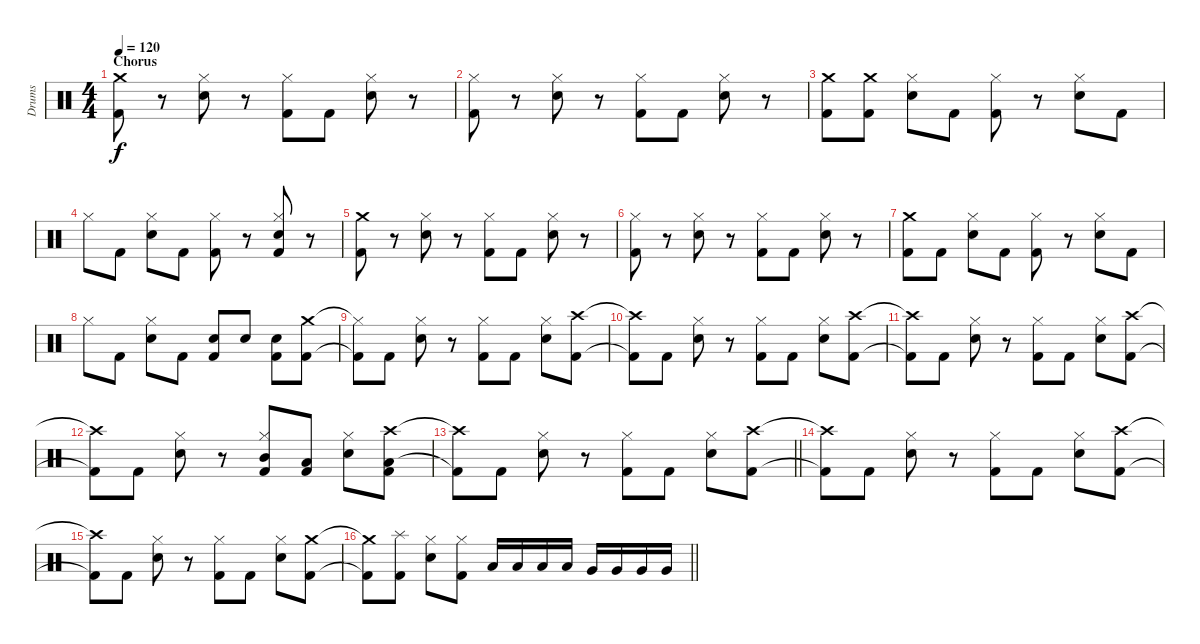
\track ("Drums" "Drums") {instrument percussion}
\staff {score}
\articulation defaults
\ts (4 4)
\section ("" "Chorus")
\tempo 120
\clef neutral
\ks c
("Crash medium (hit)" "Kick (hit) 2").8{dy f} r.8 ("Hi-Hat (closed)" "Electric Snare (hit)").8 r.8 ("Hi-Hat (closed)" "Kick (hit) 2").8 "Kick (hit) 2".8 ("Hi-Hat (closed)" "Electric Snare (hit)").8 r.8 |
("Hi-Hat (closed)" "Kick (hit) 2").8 r.8 ("Hi-Hat (closed)" "Electric Snare (hit)").8 r.8 ("Hi-Hat (closed)" "Kick (hit) 2").8 "Kick (hit) 2".8 ("Hi-Hat (closed)" "Electric Snare (hit)").8 r.8 |
("Crash medium (hit)" "Kick (hit) 2").8 ("Crash medium (hit)" "Kick (hit) 2").8 ("Hi-Hat (closed)" "Electric Snare (hit)").8 "Kick (hit) 2".8 ("Hi-Hat (closed)" "Kick (hit) 2").8 r.8 ("Hi-Hat (closed)" "Electric Snare (hit)").8 "Kick (hit) 2".8 |
"Hi-Hat (closed)".8 "Kick (hit) 2".8 ("Hi-Hat (closed)" "Electric Snare (hit)").8 "Kick (hit) 2".8 ("Hi-Hat (closed)" "Kick (hit) 2").8 r.8 ("Hi-Hat (closed)" "Electric Snare (hit)" "Kick (hit) 2").8 r.8 |
("Crash medium (hit)" "Kick (hit) 2").8 r.8 ("Hi-Hat (closed)" "Electric Snare (hit)").8 r.8 ("Hi-Hat (closed)" "Kick (hit) 2").8 "Kick (hit) 2".8 ("Hi-Hat (closed)" "Electric Snare (hit)").8 r.8 |
("Hi-Hat (closed)" "Kick (hit) 2").8 r.8 ("Hi-Hat (closed)" "Electric Snare (hit)").8 r.8 ("Hi-Hat (closed)" "Kick (hit) 2").8 "Kick (hit) 2".8 ("Hi-Hat (closed)" "Electric Snare (hit)").8 r.8 |
("Crash medium (hit)" "Kick (hit) 2").8 "Kick (hit) 2".8 ("Hi-Hat (closed)" "Electric Snare (hit)").8 "Kick (hit) 2".8 ("Hi-Hat (closed)" "Kick (hit) 2").8 r.8 ("Hi-Hat (closed)" "Electric Snare (hit)").8 "Kick (hit) 2".8 |
"Hi-Hat (closed)".8 "Kick (hit) 2".8 ("Hi-Hat (closed)" "Electric Snare (hit)").8 "Kick (hit) 2".8 ("Electric Snare (hit)" "Kick (hit) 2").8 "Electric Snare (hit)".8 ("Electric Snare (hit)" "Kick (hit) 2").8 ("Crash medium (hit)" "Kick (hit) 2").8 |
("Hi-Hat (closed)"{t} "Kick (hit) 2"{t}).8 "Kick (hit) 2".8 ("Hi-Hat (closed)" "Electric Snare (hit)").8 r.8 ("Hi-Hat (closed)" "Kick (hit) 2").8 "Kick (hit) 2".8 ("Hi-Hat (closed)" "Electric Snare (hit)").8 ("Crash high (hit)" "Kick (hit) 2").8 |
("Crash high (hit)"{t} "Kick (hit) 2"{t}).8 "Kick (hit) 2".8 ("Hi-Hat (closed)" "Electric Snare (hit)").8 r.8 ("Hi-Hat (closed)" "Kick (hit) 2").8 "Kick (hit) 2".8 ("Hi-Hat (closed)" "Electric Snare (hit)").8 ("Crash high (hit)" "Kick (hit) 2").8 |
("Crash high (hit)"{t} "Kick (hit) 2"{t}).8 "Kick (hit) 2".8 ("Hi-Hat (closed)" "Electric Snare (hit)").8 r.8 ("Hi-Hat (closed)" "Kick (hit) 2").8 "Kick (hit) 2".8 ("Hi-Hat (closed)" "Electric Snare (hit)").8 ("Crash high (hit)" "Kick (hit) 2").8 |
("Crash high (hit)"{t} "Kick (hit) 2"{t}).8 "Kick (hit) 2".8 ("Hi-Hat (closed)" "Electric Snare (hit)").8 r.8 ("Hi-Hat (closed)" "Mid Tom (hit)" "Kick (hit) 2").8 ("Low Tom (hit)" "Kick (hit) 2").8 ("Hi-Hat (closed)" "Electric Snare (hit)").8 ("Crash high (hit)" "Low Tom (hit)" "Kick (hit) 2").8 |
\barLineRight lightlight
("Crash high (hit)"{t} "Kick (hit) 2"{t}).8 "Kick (hit) 2".8 ("Hi-Hat (closed)" "Electric Snare (hit)").8 r.8 ("Hi-Hat (closed)" "Kick (hit) 2").8 "Kick (hit) 2".8 ("Hi-Hat (closed)" "Electric Snare (hit)").8 ("Crash high (hit)" "Kick (hit) 2").8 |
("Crash high (hit)"{t} "Kick (hit) 2"{t}).8 "Kick (hit) 2".8 ("Hi-Hat (closed)" "Electric Snare (hit)").8 r.8 ("Hi-Hat (closed)" "Kick (hit) 2").8 "Kick (hit) 2".8 ("Hi-Hat (closed)" "Electric Snare (hit)").8 ("Crash high (hit)" "Kick (hit) 2").8 |
("Crash high (hit)"{t} "Kick (hit) 2"{t}).8 "Kick (hit) 2".8 ("Hi-Hat (closed)" "Electric Snare (hit)").8 r.8 ("Hi-Hat (closed)" "Kick (hit) 2").8 "Kick (hit) 2".8 ("Hi-Hat (closed)" "Electric Snare (hit)").8 ("Crash medium (hit)" "Kick (hit) 2").8 |
\barLineRight lightlight
("Crash medium (hit)"{t} "Kick (hit) 2"{t}).8 ("Splash (hit)" "Kick (hit) 2").8 ("Hi-Hat (closed)" "Electric Snare (hit)").8 ("Hi-Hat (closed)" "Kick (hit) 2").8 "Low Tom (hit)".16 "Low Tom (hit)".16 "Low Tom (hit)".16 "Low Tom (hit)".16 "Very Low Tom (hit)".16 "Very Low Tom (hit)".16 "Very Low Tom (hit)".16 "Very Low Tom (hit)".16
